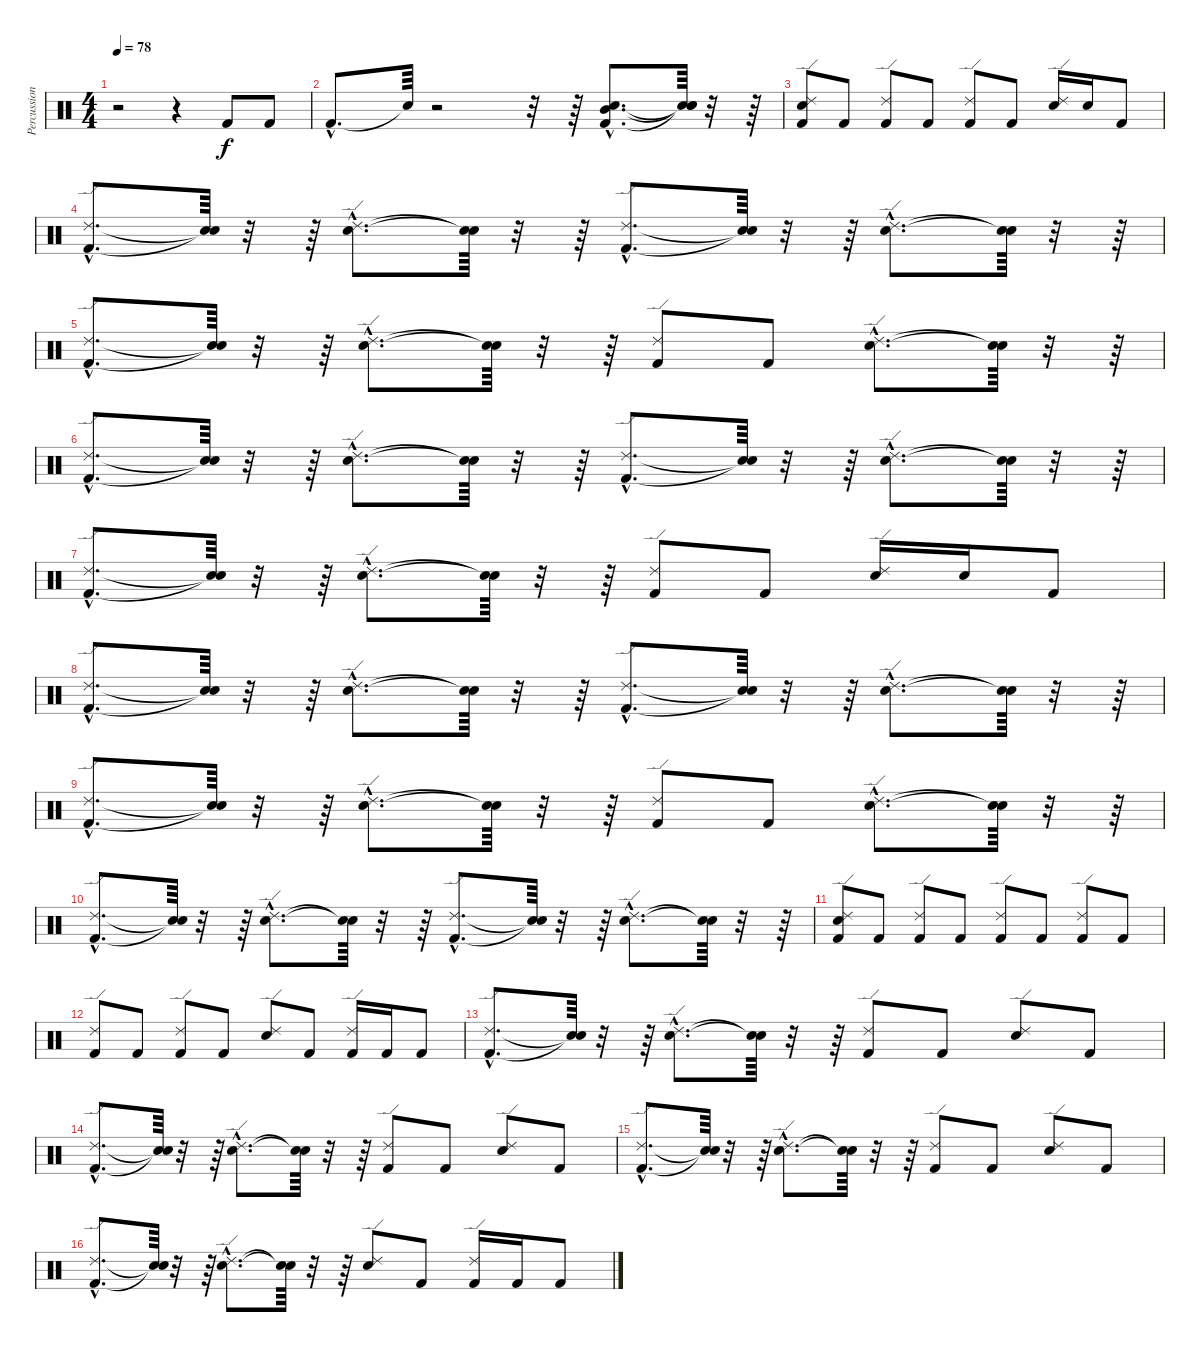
\track ("Percussion" "Percussion") {instrument percussion}
\staff {score}
\articulation defaults
\ts (4 4)
\tempo 78
\clef neutral
\ks c
r.2{dy f} r.4 "Kick (hit) 2".8 "Kick (hit) 2".8 |
"Kick (hit) 2"{hac}.8{d} "Snare (hit)"{t}.64 r.2 r.32 r.64 ("Kick (hit) 2"{hac} "Electric Snare (hit)"{hac} "Mid Tom (hit)"{hac}).8{d} ("Snare (hit)"{t} "Snare (hit)"{t} "Snare (hit)"{t}).64 r.32 r.64 |
("Kick (hit) 2" "Snare (hit) 2" "Ride (edge) 2").8 "Kick (hit) 2".8 ("Kick (hit) 2" "Ride (edge) 2").8 "Kick (hit) 2".8 ("Kick (hit) 2" "Ride (edge) 2").8 "Kick (hit) 2".8 ("Snare (hit) 2" "Ride (edge) 2").16 "Snare (hit) 2".16 "Kick (hit) 2".8 |
("Kick (hit) 2"{hac} "Ride (edge) 2"{hac}).8{d} ("Snare (hit)"{t} "Snare (hit)"{t}).64 r.32 r.64 ("Snare (hit) 2"{hac} "Ride (edge) 2"{hac}).8{d} ("Snare (hit)"{t} "Snare (hit)"{t}).64 r.32 r.64 ("Kick (hit) 2"{hac} "Ride (edge) 2"{hac}).8{d} ("Snare (hit)"{t} "Snare (hit)"{t}).64 r.32 r.64 ("Snare (hit) 2"{hac} "Ride (edge) 2"{hac}).8{d} ("Snare (hit)"{t} "Snare (hit)"{t}).64 r.32 r.64 |
("Kick (hit) 2"{hac} "Ride (edge) 2"{hac}).8{d} ("Snare (hit)"{t} "Snare (hit)"{t}).64 r.32 r.64 ("Snare (hit) 2"{hac} "Ride (edge) 2"{hac}).8{d} ("Snare (hit)"{t} "Snare (hit)"{t}).64 r.32 r.64 ("Kick (hit) 2" "Ride (edge) 2").8 "Kick (hit) 2".8 ("Snare (hit) 2"{hac} "Ride (edge) 2"{hac}).8{d} ("Snare (hit)"{t} "Snare (hit)"{t}).64 r.32 r.64 |
("Kick (hit) 2"{hac} "Ride (edge) 2"{hac}).8{d} ("Snare (hit)"{t} "Snare (hit)"{t}).64 r.32 r.64 ("Snare (hit) 2"{hac} "Ride (edge) 2"{hac}).8{d} ("Snare (hit)"{t} "Snare (hit)"{t}).64 r.32 r.64 ("Kick (hit) 2"{hac} "Ride (edge) 2"{hac}).8{d} ("Snare (hit)"{t} "Snare (hit)"{t}).64 r.32 r.64 ("Snare (hit) 2"{hac} "Ride (edge) 2"{hac}).8{d} ("Snare (hit)"{t} "Snare (hit)"{t}).64 r.32 r.64 |
("Kick (hit) 2"{hac} "Ride (edge) 2"{hac}).8{d} ("Snare (hit)"{t} "Snare (hit)"{t}).64 r.32 r.64 ("Snare (hit) 2"{hac} "Ride (edge) 2"{hac}).8{d} ("Snare (hit)"{t} "Snare (hit)"{t}).64 r.32 r.64 ("Kick (hit) 2" "Ride (edge) 2").8 "Kick (hit) 2".8 ("Snare (hit) 2" "Ride (edge) 2").16 "Snare (hit) 2".16 "Kick (hit) 2".8 |
("Kick (hit) 2"{hac} "Ride (edge) 2"{hac}).8{d} ("Snare (hit)"{t} "Snare (hit)"{t}).64 r.32 r.64 ("Snare (hit) 2"{hac} "Ride (edge) 2"{hac}).8{d} ("Snare (hit)"{t} "Snare (hit)"{t}).64 r.32 r.64 ("Kick (hit) 2"{hac} "Ride (edge) 2"{hac}).8{d} ("Snare (hit)"{t} "Snare (hit)"{t}).64 r.32 r.64 ("Snare (hit) 2"{hac} "Ride (edge) 2"{hac}).8{d} ("Snare (hit)"{t} "Snare (hit)"{t}).64 r.32 r.64 |
("Kick (hit) 2"{hac} "Ride (edge) 2"{hac}).8{d} ("Snare (hit)"{t} "Snare (hit)"{t}).64 r.32 r.64 ("Snare (hit) 2"{hac} "Ride (edge) 2"{hac}).8{d} ("Snare (hit)"{t} "Snare (hit)"{t}).64 r.32 r.64 ("Kick (hit) 2" "Ride (edge) 2").8 "Kick (hit) 2".8 ("Snare (hit) 2"{hac} "Ride (edge) 2"{hac}).8{d} ("Snare (hit)"{t} "Snare (hit)"{t}).64 r.32 r.64 |
("Kick (hit) 2"{hac} "Ride (edge) 2"{hac}).8{d} ("Snare (hit)"{t} "Snare (hit)"{t}).64 r.32 r.64 ("Snare (hit) 2"{hac} "Ride (edge) 2"{hac}).8{d} ("Snare (hit)"{t} "Snare (hit)"{t}).64 r.32 r.64 ("Kick (hit) 2"{hac} "Ride (edge) 2"{hac}).8{d} ("Snare (hit)"{t} "Snare (hit)"{t}).64 r.32 r.64 ("Snare (hit) 2"{hac} "Ride (edge) 2"{hac}).8{d} ("Snare (hit)"{t} "Snare (hit)"{t}).64 r.32 r.64 |
("Kick (hit) 2" "Snare (hit) 2" "Ride (edge) 2").8 "Kick (hit) 2".8 ("Kick (hit) 2" "Ride (edge) 2").8 "Kick (hit) 2".8 ("Kick (hit) 2" "Ride (edge) 2").8 "Kick (hit) 2".8 ("Kick (hit) 2" "Ride (edge) 2").8 "Kick (hit) 2".8 |
("Kick (hit) 2" "Ride (edge) 2").8 "Kick (hit) 2".8 ("Kick (hit) 2" "Ride (edge) 2").8 "Kick (hit) 2".8 ("Snare (hit) 2" "Ride (edge) 2").8 "Kick (hit) 2".8 ("Kick (hit) 2" "Ride (edge) 2").16 "Kick (hit) 2".16 "Kick (hit) 2".8 |
("Kick (hit) 2"{hac} "Ride (edge) 2"{hac}).8{d} ("Snare (hit)"{t} "Snare (hit)"{t}).64 r.32 r.64 ("Snare (hit) 2"{hac} "Ride (edge) 2"{hac}).8{d} ("Snare (hit)"{t} "Snare (hit)"{t}).64 r.32 r.64 ("Kick (hit) 2" "Ride (edge) 2").8 "Kick (hit) 2".8 ("Snare (hit) 2" "Ride (edge) 2").8 "Kick (hit) 2".8 |
("Kick (hit) 2"{hac} "Ride (edge) 2"{hac}).8{d} ("Snare (hit)"{t} "Snare (hit)"{t}).64 r.32 r.64 ("Snare (hit) 2"{hac} "Ride (edge) 2"{hac}).8{d} ("Snare (hit)"{t} "Snare (hit)"{t}).64 r.32 r.64 ("Kick (hit) 2" "Ride (edge) 2").8 "Kick (hit) 2".8 ("Snare (hit) 2" "Ride (edge) 2").8 "Kick (hit) 2".8 |
("Kick (hit) 2"{hac} "Ride (edge) 2"{hac}).8{d} ("Snare (hit)"{t} "Snare (hit)"{t}).64 r.32 r.64 ("Snare (hit) 2"{hac} "Ride (edge) 2"{hac}).8{d} ("Snare (hit)"{t} "Snare (hit)"{t}).64 r.32 r.64 ("Kick (hit) 2" "Ride (edge) 2").8 "Kick (hit) 2".8 ("Snare (hit) 2" "Ride (edge) 2").8 "Kick (hit) 2".8 |
("Kick (hit) 2"{hac} "Ride (edge) 2"{hac}).8{d} ("Snare (hit)"{t} "Snare (hit)"{t}).64 r.32 r.64 ("Snare (hit) 2"{hac} "Ride (edge) 2"{hac}).8{d} ("Snare (hit)"{t} "Snare (hit)"{t}).64 r.32 r.64 ("Snare (hit) 2" "Ride (edge) 2").8 "Kick (hit) 2".8 ("Kick (hit) 2" "Ride (edge) 2").16 "Kick (hit) 2".16 "Kick (hit) 2".8
